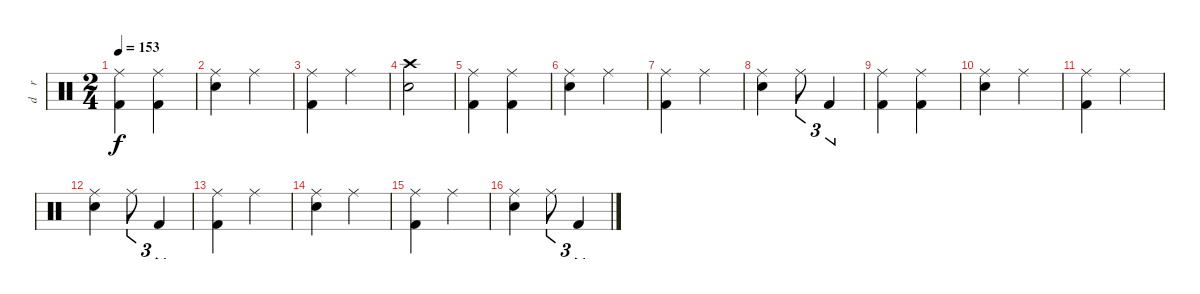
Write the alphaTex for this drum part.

\track ("d    r     u    m    s" "d    r    ") {instrument percussion}
\staff {score}
\articulation defaults
\ts (2 4)
\tempo 153
\clef neutral
\ks c
("Ride (middle)" "Kick (hit) 2").4{dy f} ("Ride (middle)" "Kick (hit) 2").4 |
("Ride (middle)" "Electric Snare (hit)").4 "Ride (middle)".4 |
("Ride (middle)" "Kick (hit) 2").4 "Ride (middle)".4 |
("Crash high (hit)" "Electric Snare (hit)").2 |
("Ride (middle)" "Kick (hit) 2").4 ("Ride (middle)" "Kick (hit) 2").4 |
("Ride (middle)" "Electric Snare (hit)").4 "Ride (middle)".4 |
("Ride (middle)" "Kick (hit) 2").4 "Ride (middle)".4 |
("Ride (middle)" "Electric Snare (hit)").4 "Ride (middle)".8{tu (3 2)} "Kick (hit) 2".4{tu (3 2)} |
("Ride (middle)" "Kick (hit) 2").4 ("Ride (middle)" "Kick (hit) 2").4 |
("Ride (middle)" "Electric Snare (hit)").4 "Ride (middle)".4 |
("Ride (middle)" "Kick (hit) 2").4 "Ride (middle)".4 |
("Ride (middle)" "Electric Snare (hit)").4 "Ride (middle)".8{tu (3 2)} "Kick (hit) 2".4{tu (3 2)} |
("Ride (middle)" "Kick (hit) 2").4 "Ride (middle)".4 |
("Ride (middle)" "Electric Snare (hit)").4 "Ride (middle)".4 |
("Ride (middle)" "Kick (hit) 2").4 "Ride (middle)".4 |
("Ride (middle)" "Electric Snare (hit)").4 "Ride (middle)".8{tu (3 2)} "Kick (hit) 2".4{tu (3 2)}
